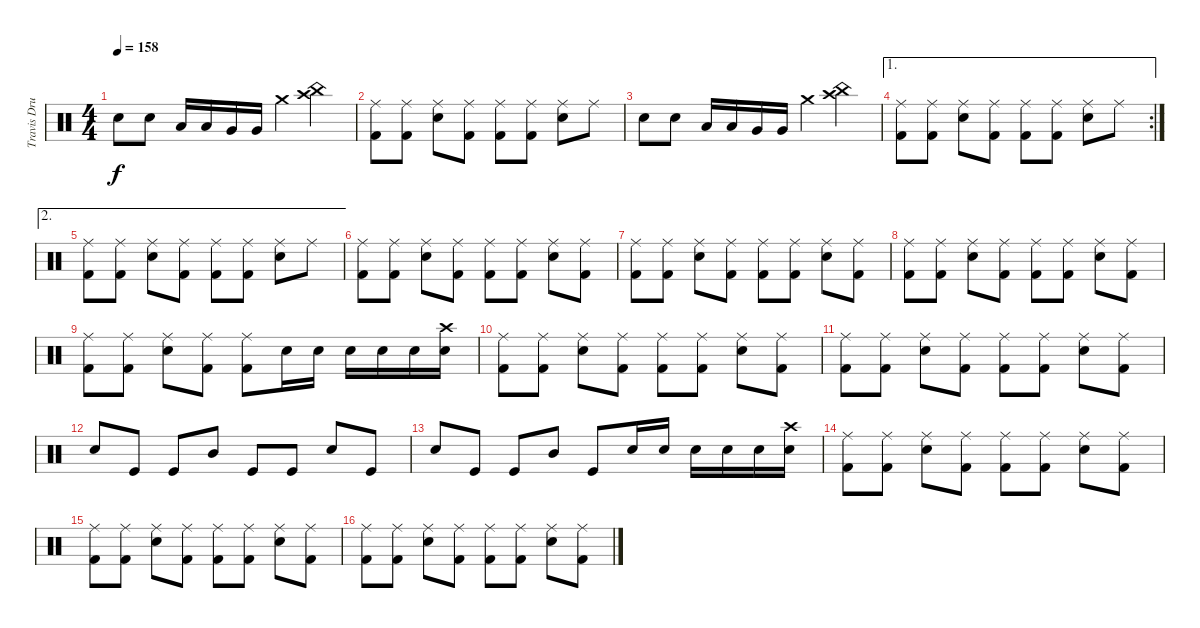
\track ("Travis Drums" "Travis Dru") {instrument percussion}
\staff {score}
\articulation defaults
\ts (4 4)
\tempo 158
\clef neutral
\ks c "Snare (hit) 2".8{dy f} "Snare (hit) 2".8 "Low Tom (hit)".16 "Low Tom (hit)".16 "Very Low Tom (hit)".16 "Very Low Tom (hit)".16 "Crash medium (hit)".4
("China (hit)" "Crash high (hit)").4 |
("Ride (middle)" "Kick (hit) 2").8 ("Ride (middle)" "Kick (hit) 2").8 ("Ride (middle)" "Snare (hit) 2").8 ("Ride (middle)" "Kick (hit) 2").8 ("Ride (middle)" "Kick (hit) 2").8 ("Ride (middle)" "Kick (hit) 2").8 ("Ride (middle)" "Snare (hit) 2").8 "Ride (middle)".8 |
"Snare (hit) 2".8 "Snare (hit) 2".8 "Low Tom (hit)".16 "Low Tom (hit)".16 "Very Low Tom (hit)".16 "Very Low Tom (hit)".16 "Crash medium (hit)".4 ("China (hit)" "Crash high (hit)").4 |
\ae 1
\rc 2
("Ride (middle)" "Kick (hit) 2").8 ("Ride (middle)" "Kick (hit) 2").8 ("Ride (middle)" "Snare (hit) 2").8 ("Ride (middle)" "Kick (hit) 2").8 ("Ride (middle)" "Kick (hit) 2").8 ("Ride (middle)" "Kick (hit) 2").8 ("Ride (middle)" "Snare (hit) 2").8 "Ride (middle)".8 |
\ae 2
("Ride (middle)" "Kick (hit) 2").8 ("Ride (middle)" "Kick (hit) 2").8 ("Ride (middle)" "Snare (hit) 2").8 ("Ride (middle)" "Kick (hit) 2").8 ("Ride (middle)" "Kick (hit) 2").8 ("Ride (middle)" "Kick (hit) 2").8 ("Ride (middle)" "Snare (hit) 2").8 "Ride (middle)".8 |
("Ride (middle)" "Kick (hit) 2").8 ("Ride (middle)" "Kick (hit) 2").8 ("Ride (middle)" "Snare (hit) 2").8 ("Ride (middle)" "Kick (hit) 2").8 ("Ride (middle)" "Kick (hit) 2").8 ("Ride (middle)" "Kick (hit) 2").8 ("Ride (middle)" "Snare (hit) 2").8 ("Ride (middle)" "Kick (hit) 2").8 |
("Ride (middle)" "Kick (hit) 2").8 ("Ride (middle)" "Kick (hit) 2").8 ("Ride (middle)" "Snare (hit) 2").8 ("Ride (middle)" "Kick (hit) 2").8 ("Ride (middle)" "Kick (hit) 2").8 ("Ride (middle)" "Kick (hit) 2").8 ("Ride (middle)" "Snare (hit) 2").8 ("Ride (middle)" "Kick (hit) 2").8 |
("Ride (middle)" "Kick (hit) 2").8 ("Ride (middle)" "Kick (hit) 2").8 ("Ride (middle)" "Snare (hit) 2").8 ("Ride (middle)" "Kick (hit) 2").8 ("Ride (middle)" "Kick (hit) 2").8 ("Ride (middle)" "Kick (hit) 2").8 ("Ride (middle)" "Snare (hit) 2").8 ("Ride (middle)" "Kick (hit) 2").8 |
("Ride (middle)" "Kick (hit) 2").8 ("Ride (middle)" "Kick (hit) 2").8 ("Ride (middle)" "Snare (hit) 2").8 ("Ride (middle)" "Kick (hit) 2").8 ("Ride (middle)" "Kick (hit) 2").8 "Snare (hit) 2".16 "Snare (hit) 2".16 "Snare (hit) 2".16 "Snare (hit) 2".16 "Snare (hit) 2".16 ("Snare (hit) 2" "Crash high (hit)").16 |
("Ride (middle)" "Kick (hit) 2").8 ("Ride (middle)" "Kick (hit) 2").8 ("Ride (middle)" "Snare (hit) 2").8 ("Ride (middle)" "Kick (hit) 2").8 ("Ride (middle)" "Kick (hit) 2").8 ("Ride (middle)" "Kick (hit) 2").8 ("Ride (middle)" "Snare (hit) 2").8 ("Ride (middle)" "Kick (hit) 2").8 |
("Ride (middle)" "Kick (hit) 2").8 ("Ride (middle)" "Kick (hit) 2").8 ("Ride (middle)" "Snare (hit) 2").8 ("Ride (middle)" "Kick (hit) 2").8 ("Ride (middle)" "Kick (hit) 2").8 ("Ride (middle)" "Kick (hit) 2").8 ("Ride (middle)" "Snare (hit) 2").8 ("Ride (middle)" "Kick (hit) 2").8 |
"Snare (hit) 2".8 "Kick (hit)".8 "Kick (hit)".8 "Mid Tom (hit)".8 "Kick (hit)".8 "Kick (hit)".8 "Snare (hit) 2".8 "Kick (hit)".8 |
"Snare (hit) 2".8 "Kick (hit)".8 "Kick (hit)".8 "Mid Tom (hit)".8 "Kick (hit)".8 "Snare (hit) 2".16 "Snare (hit) 2".16 "Snare (hit) 2".16 "Snare (hit) 2".16 "Snare (hit) 2".16 ("Snare (hit) 2" "Crash high (hit)").16 |
("Ride (middle)" "Kick (hit) 2").8 ("Ride (middle)" "Kick (hit) 2").8 ("Ride (middle)" "Snare (hit) 2").8 ("Ride (middle)" "Kick (hit) 2").8 ("Ride (middle)" "Kick (hit) 2").8 ("Ride (middle)" "Kick (hit) 2").8 ("Ride (middle)" "Snare (hit) 2").8 ("Ride (middle)" "Kick (hit) 2").8 |
("Ride (middle)" "Kick (hit) 2").8 ("Ride (middle)" "Kick (hit) 2").8 ("Ride (middle)" "Snare (hit) 2").8 ("Ride (middle)" "Kick (hit) 2").8 ("Ride (middle)" "Kick (hit) 2").8 ("Ride (middle)" "Kick (hit) 2").8 ("Ride (middle)" "Snare (hit) 2").8 ("Ride (middle)" "Kick (hit) 2").8 |
("Ride (middle)" "Kick (hit) 2").8 ("Ride (middle)" "Kick (hit) 2").8 ("Ride (middle)" "Snare (hit) 2").8 ("Ride (middle)" "Kick (hit) 2").8 ("Ride (middle)" "Kick (hit) 2").8 ("Ride (middle)" "Kick (hit) 2").8 ("Ride (middle)" "Snare (hit) 2").8 ("Ride (middle)" "Kick (hit) 2").8
